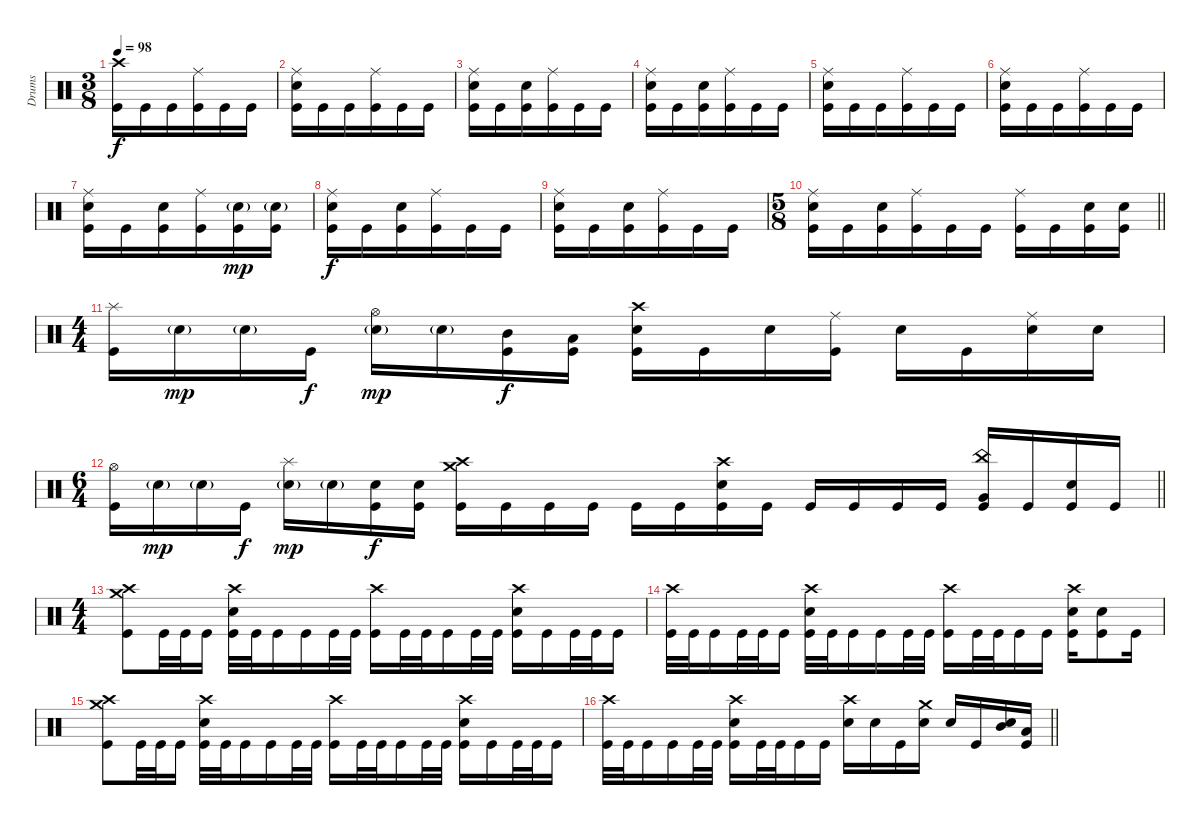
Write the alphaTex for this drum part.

\track ("Drums" "Drums") {instrument percussion}
\staff
\articulation defaults
\ts (3 8)
\tempo 98
\clef neutral
\ks c
("Crash high (hit)" "Kick (hit)").16{dy f} "Kick (hit)".16 "Kick (hit)".16 ("Ride (middle)" "Kick (hit)").16 "Kick (hit)".16 "Kick (hit)".16 |
("Ride (middle)" "Electric Snare (hit)" "Kick (hit)").16 "Kick (hit)".16 "Kick (hit)".16 ("Ride (middle)" "Kick (hit)").16 "Kick (hit)".16 "Kick (hit)".16 |
("Ride (middle)" "Electric Snare (hit)" "Kick (hit)").16 "Kick (hit)".16 ("Electric Snare (hit)" "Kick (hit)").16 ("Ride (middle)" "Kick (hit)").16 "Kick (hit)".16 "Kick (hit)".16 |
("Ride (middle)" "Electric Snare (hit)" "Kick (hit)").16 "Kick (hit)".16 ("Electric Snare (hit)" "Kick (hit)").16 ("Ride (middle)" "Kick (hit)").16 "Kick (hit)".16 "Kick (hit)".16 |
("Ride (middle)" "Electric Snare (hit)" "Kick (hit)").16 "Kick (hit)".16 "Kick (hit)".16 ("Ride (middle)" "Kick (hit)").16 "Kick (hit)".16 "Kick (hit)".16 |
("Ride (middle)" "Electric Snare (hit)" "Kick (hit)").16 "Kick (hit)".16 "Kick (hit)".16 ("Ride (middle)" "Kick (hit)").16 "Kick (hit)".16 "Kick (hit)".16 |
("Ride (middle)" "Electric Snare (hit)" "Kick (hit)").16 "Kick (hit)".16 ("Electric Snare (hit)" "Kick (hit)").16 ("Ride (middle)" "Kick (hit)").16 ("Electric Snare (hit)"{g} "Kick (hit)").16{dy mp} ("Electric Snare (hit)"{g} "Kick (hit)").16 |
("Ride (middle)" "Electric Snare (hit)" "Kick (hit)").16{dy f} "Kick (hit)".16 ("Electric Snare (hit)" "Kick (hit)").16 ("Ride (middle)" "Kick (hit)").16 "Kick (hit)".16 "Kick (hit)".16 |
("Ride (middle)" "Electric Snare (hit)" "Kick (hit)").16 "Kick (hit)".16 ("Electric Snare (hit)" "Kick (hit)").16 ("Ride (middle)" "Kick (hit)").16 "Kick (hit)".16 "Kick (hit)".16 |
\ts (5 8)
\barLineRight lightlight
("Ride (middle)" "Electric Snare (hit)" "Kick (hit)").16 "Kick (hit)".16 ("Electric Snare (hit)" "Kick (hit)").16 ("Ride (middle)" "Kick (hit)").16 "Kick (hit)".16 "Kick (hit)".16 ("Ride (middle)" "Kick (hit)").16 "Kick (hit)".16 ("Electric Snare (hit)" "Kick (hit)").16 ("Electric Snare (hit)" "Kick (hit)").16 |
\ts (4 4)
("Splash (hit)" "Kick (hit)").16 "Electric Snare (hit)"{g}.16{dy mp} "Electric Snare (hit)"{g}.16 "Kick (hit)".16{dy f} ("Hi-Hat (open)" "Electric Snare (hit)"{g}).16{dy mp} "Electric Snare (hit)"{g}.16 ("Mid Tom (hit)" "Kick (hit)").16{dy f} ("Low Tom (hit)" "Kick (hit)").16 ("Crash high (hit)" "Electric Snare (hit)" "Kick (hit)").16 "Kick (hit)".16 "Electric Snare (hit)".16 ("Ride (middle)" "Kick (hit)").16 "Electric Snare (hit)".16 "Kick (hit)".16 ("Ride (middle)" "Electric Snare (hit)").16 "Electric Snare (hit)".16 |
\ts (6 4)
\barLineRight lightlight
("Hi-Hat (open)" "Kick (hit)").16 "Electric Snare (hit)"{g}.16{dy mp} "Electric Snare (hit)"{g}.16 "Kick (hit)".16{dy f} ("Splash (hit)" "Electric Snare (hit)"{g}).16{dy mp} "Electric Snare (hit)"{g}.16 ("Electric Snare (hit)" "Kick (hit)").16{dy f} ("Electric Snare (hit)" "Kick (hit)").16 ("Crash high (hit)" "Crash medium (hit)" "Kick (hit)").16 "Kick (hit)".16 "Kick (hit)".16 "Kick (hit)".16 "Kick (hit)".16 "Kick (hit)".16 ("Crash high (hit)" "Electric Snare (hit)" "Kick (hit)").16 "Kick (hit)".16 "Kick (hit)".16 "Kick (hit)".16 "Kick (hit)".16 "Kick (hit)".16 ("China (hit)" "Very Low Tom (hit)" "Kick (hit)").16 "Kick (hit)".16 ("Electric Snare (hit)" "Kick (hit)").16 "Kick (hit)".16 |
\ts (4 4)
\section ("" "")
("Crash high (hit)" "Crash medium (hit)" "Kick (hit)").8 "Kick (hit)".32 "Kick (hit)".32 "Kick (hit)".16 ("Crash high (hit)" "Electric Snare (hit)" "Kick (hit)").32 "Kick (hit)".32 "Kick (hit)".16 "Kick (hit)".16 "Kick (hit)".32 "Kick (hit)".32 ("Crash high (hit)" "Kick (hit)").16 "Kick (hit)".32 "Kick (hit)".32 "Kick (hit)".16 "Kick (hit)".32 "Kick (hit)".32 ("Crash high (hit)" "Electric Snare (hit)" "Kick (hit)").16 "Kick (hit)".16 "Kick (hit)".32 "Kick (hit)".32 "Kick (hit)".16 |
("Crash high (hit)" "Kick (hit)").32 "Kick (hit)".32 "Kick (hit)".16 "Kick (hit)".32 "Kick (hit)".32 "Kick (hit)".16 ("Crash high (hit)" "Electric Snare (hit)" "Kick (hit)").32 "Kick (hit)".32 "Kick (hit)".16 "Kick (hit)".16 "Kick (hit)".32 "Kick (hit)".32 ("Crash high (hit)" "Kick (hit)").16 "Kick (hit)".32 "Kick (hit)".32 "Kick (hit)".16 "Kick (hit)".16 ("Crash high (hit)" "Electric Snare (hit)" "Kick (hit)").16 ("Electric Snare (hit)" "Kick (hit)").8 "Kick (hit)".16 |
("Crash high (hit)" "Crash medium (hit)" "Kick (hit)").8 "Kick (hit)".32 "Kick (hit)".32 "Kick (hit)".16 ("Crash high (hit)" "Electric Snare (hit)" "Kick (hit)").32 "Kick (hit)".32 "Kick (hit)".16 "Kick (hit)".16 "Kick (hit)".32 "Kick (hit)".32 ("Crash high (hit)" "Kick (hit)").16 "Kick (hit)".32 "Kick (hit)".32 "Kick (hit)".16 "Kick (hit)".32 "Kick (hit)".32 ("Crash high (hit)" "Electric Snare (hit)" "Kick (hit)").16 "Kick (hit)".16 "Kick (hit)".32 "Kick (hit)".32 "Kick (hit)".16 |
\barLineRight lightlight
("Crash high (hit)" "Kick (hit)").32 "Kick (hit)".32 "Kick (hit)".16 "Kick (hit)".16 "Kick (hit)".32 "Kick (hit)".32 ("Crash high (hit)" "Electric Snare (hit)" "Kick (hit)").16 "Kick (hit)".32 "Kick (hit)".32 "Kick (hit)".16 "Kick (hit)".16 ("Crash high (hit)" "Electric Snare (hit)").16 "Electric Snare (hit)".16 "Kick (hit)".16 ("Crash medium (hit)" "Electric Snare (hit)").16 "Electric Snare (hit)".16 "Kick (hit)".16 ("Mid Tom (hit)" "Electric Snare (hit)").16 ("Low Tom (hit)" "Kick (hit)").16
